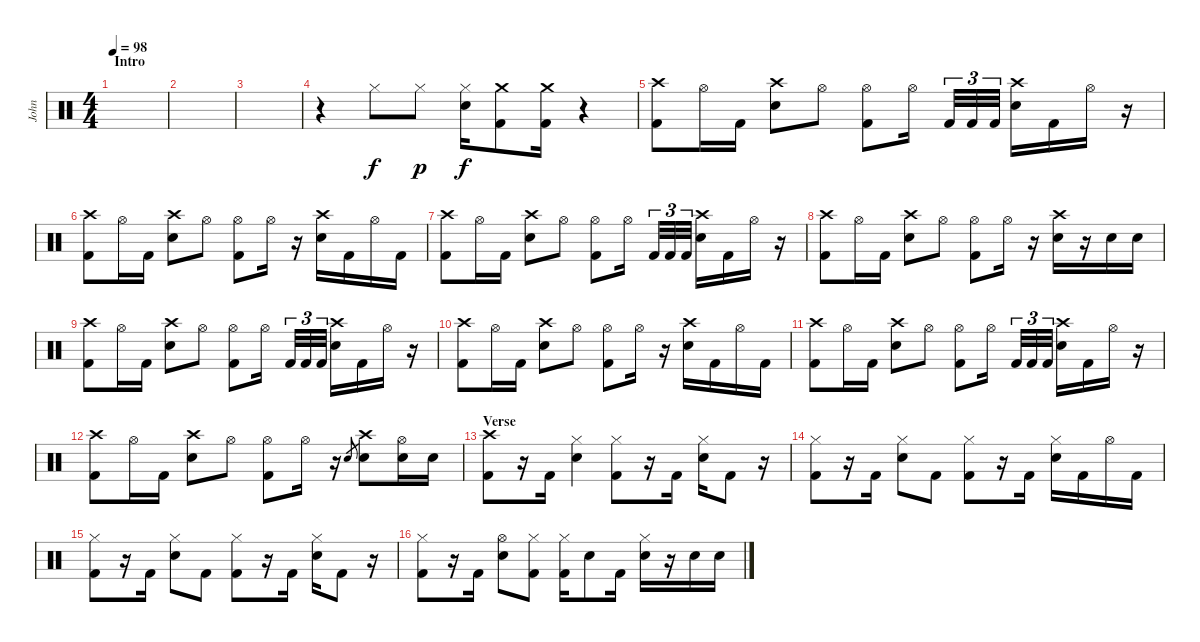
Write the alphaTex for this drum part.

\track ("John" "John") {instrument percussion}
\staff {score}
\articulation defaults
\ts (4 4)
\section ("" "Intro")
\tempo 98
\clef neutral
\ks c
|
|
|
r.4 "Hi-Hat (closed)".8 "Hi-Hat (closed)".8{dy p} ("Hi-Hat (closed)" "Snare (hit) 2").16{dy f} ("Crash medium (hit)" "Kick (hit) 2").8 ("Crash medium (hit)" "Kick (hit) 2").16 r.4 |
("Crash high (hit)" "Kick (hit) 2").8 "Hi-Hat (open)".16 "Kick (hit) 2".16 ("Crash high (hit)" "Snare (hit) 2").8 "Hi-Hat (open)".8 ("Hi-Hat (open)" "Kick (hit) 2").8 "Hi-Hat (open)".16 "Kick (hit) 2".32{tu (3 2)} "Kick (hit) 2".32{tu (3 2)} "Kick (hit) 2".32{tu (3 2)} ("Crash high (hit)" "Snare (hit) 2").16 "Kick (hit) 2".16 "Hi-Hat (open)".16 r.16 |
("Crash high (hit)" "Kick (hit) 2").8 "Hi-Hat (open)".16 "Kick (hit) 2".16 ("Crash high (hit)" "Snare (hit) 2").8 "Hi-Hat (open)".8 ("Hi-Hat (open)" "Kick (hit) 2").8 "Hi-Hat (open)".16 r.16 ("Crash high (hit)" "Snare (hit) 2").16 "Kick (hit) 2".16 "Hi-Hat (open)".16 "Kick (hit) 2".16 |
("Crash high (hit)" "Kick (hit) 2").8 "Hi-Hat (open)".16 "Kick (hit) 2".16 ("Crash high (hit)" "Snare (hit) 2").8 "Hi-Hat (open)".8 ("Hi-Hat (open)" "Kick (hit) 2").8 "Hi-Hat (open)".16 "Kick (hit) 2".32{tu (3 2)} "Kick (hit) 2".32{tu (3 2)} "Kick (hit) 2".32{tu (3 2)} ("Crash high (hit)" "Snare (hit) 2").16 "Kick (hit) 2".16 "Hi-Hat (open)".16 r.16 |
("Crash high (hit)" "Kick (hit) 2").8 "Hi-Hat (open)".16 "Kick (hit) 2".16 ("Crash high (hit)" "Snare (hit) 2").8 "Hi-Hat (open)".8 ("Hi-Hat (open)" "Kick (hit) 2").8 "Hi-Hat (open)".16 r.16 ("Crash high (hit)" "Snare (hit) 2").16 r.16 "Snare (hit) 2".16 "Snare (hit) 2".16 |
("Crash high (hit)" "Kick (hit) 2").8 "Hi-Hat (open)".16 "Kick (hit) 2".16 ("Crash high (hit)" "Snare (hit) 2").8 "Hi-Hat (open)".8 ("Hi-Hat (open)" "Kick (hit) 2").8 "Hi-Hat (open)".16 "Kick (hit) 2".32{tu (3 2)} "Kick (hit) 2".32{tu (3 2)} "Kick (hit) 2".32{tu (3 2)} ("Crash high (hit)" "Snare (hit) 2").16 "Kick (hit) 2".16 "Hi-Hat (open)".16 r.16 |
("Crash high (hit)" "Kick (hit) 2").8 "Hi-Hat (open)".16 "Kick (hit) 2".16 ("Crash high (hit)" "Snare (hit) 2").8 "Hi-Hat (open)".8 ("Hi-Hat (open)" "Kick (hit) 2").8 "Hi-Hat (open)".16 r.16 ("Crash high (hit)" "Snare (hit) 2").16 "Kick (hit) 2".16 "Hi-Hat (open)".16 "Kick (hit) 2".16 |
("Crash high (hit)" "Kick (hit) 2").8 "Hi-Hat (open)".16 "Kick (hit) 2".16 ("Crash high (hit)" "Snare (hit) 2").8 "Hi-Hat (open)".8 ("Hi-Hat (open)" "Kick (hit) 2").8 "Hi-Hat (open)".16 "Kick (hit) 2".32{tu (3 2)} "Kick (hit) 2".32{tu (3 2)} "Kick (hit) 2".32{tu (3 2)} ("Crash high (hit)" "Snare (hit) 2").16 "Kick (hit) 2".16 "Hi-Hat (open)".16 r.16 |
("Crash high (hit)" "Kick (hit) 2").8 "Hi-Hat (open)".16 "Kick (hit) 2".16 ("Crash high (hit)" "Snare (hit) 2").8 "Hi-Hat (open)".8 ("Hi-Hat (open)" "Kick (hit) 2").8 "Hi-Hat (open)".16 r.16 "Snare (hit) 2".8{gr} ("Crash high (hit)" "Snare (hit) 2").8 ("Hi-Hat (open)" "Snare (hit) 2").16 "Snare (hit) 2".16 |
\section ("" "Verse")
("Crash high (hit)" "Kick (hit) 2").8 r.16 "Kick (hit) 2".16 ("Hi-Hat (closed)" "Snare (hit) 2").4 ("Hi-Hat (closed)" "Kick (hit) 2").8 r.16 "Kick (hit) 2".16 ("Hi-Hat (closed)" "Snare (hit) 2").16 "Kick (hit) 2".8 r.16 |
("Hi-Hat (closed)" "Kick (hit) 2").8 r.16 "Kick (hit) 2".16 ("Hi-Hat (closed)" "Snare (hit) 2").8 "Kick (hit) 2".8 ("Hi-Hat (closed)" "Kick (hit) 2").8 r.16 "Kick (hit) 2".16 ("Hi-Hat (closed)" "Snare (hit) 2").16 "Kick (hit) 2".16 "Hi-Hat (open)".16 "Kick (hit) 2".16 |
("Hi-Hat (closed)" "Kick (hit) 2").8 r.16 "Kick (hit) 2".16 ("Hi-Hat (closed)" "Snare (hit) 2").8 "Kick (hit) 2".8 ("Hi-Hat (closed)" "Kick (hit) 2").8 r.16 "Kick (hit) 2".16 ("Hi-Hat (closed)" "Snare (hit) 2").16 "Kick (hit) 2".8 r.16 |
("Hi-Hat (closed)" "Kick (hit) 2").8 r.16 "Kick (hit) 2".16 ("Hi-Hat (open)" "Snare (hit) 2").8 ("Hi-Hat (closed)" "Kick (hit) 2").8 ("Hi-Hat (closed)" "Kick (hit) 2").16 "Snare (hit) 2".8 "Kick (hit) 2".16 ("Hi-Hat (closed)" "Snare (hit) 2").16 r.16 "Snare (hit) 2".16 "Snare (hit) 2".16
